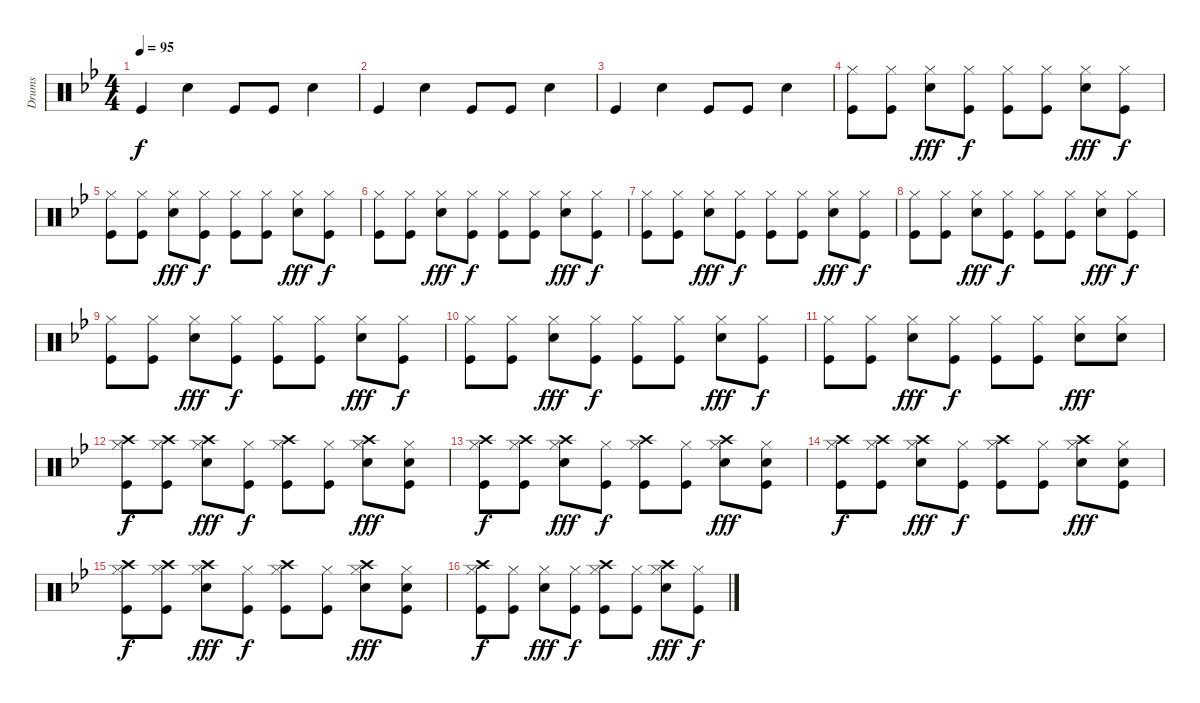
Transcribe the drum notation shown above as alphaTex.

\track ("Drums" "Drums") {instrument percussion}
\staff {score}
\articulation defaults
\ts (4 4)
\tempo 95
\clef neutral
\ks gminor "Kick (hit)".4{dy f} "Snare (hit) 2".4 "Kick (hit)".8 "Kick (hit)".8 "Snare (hit) 2".4
|
"Kick (hit)".4 "Snare (hit) 2".4 "Kick (hit)".8 "Kick (hit)".8 "Snare (hit) 2".4 |
"Kick (hit)".4 "Snare (hit) 2".4 "Kick (hit)".8 "Kick (hit)".8 "Snare (hit) 2".4 |
("Hi-Hat (closed)" "Kick (hit)").8{volume 13} ("Hi-Hat (closed)" "Kick (hit)").8 ("Hi-Hat (closed)" "Electric Snare (hit)").8{dy fff} ("Hi-Hat (closed)" "Kick (hit)").8{dy f} ("Hi-Hat (closed)" "Kick (hit)").8 ("Hi-Hat (closed)" "Kick (hit)").8 ("Hi-Hat (closed)" "Electric Snare (hit)").8{dy fff} ("Hi-Hat (closed)" "Kick (hit)").8{dy f} |
("Hi-Hat (closed)" "Kick (hit)").8 ("Hi-Hat (closed)" "Kick (hit)").8 ("Hi-Hat (closed)" "Electric Snare (hit)").8{dy fff} ("Hi-Hat (closed)" "Kick (hit)").8{dy f} ("Hi-Hat (closed)" "Kick (hit)").8 ("Hi-Hat (closed)" "Kick (hit)").8 ("Hi-Hat (closed)" "Electric Snare (hit)").8{dy fff} ("Hi-Hat (closed)" "Kick (hit)").8{dy f} |
("Hi-Hat (closed)" "Kick (hit)").8 ("Hi-Hat (closed)" "Kick (hit)").8 ("Hi-Hat (closed)" "Electric Snare (hit)").8{dy fff} ("Hi-Hat (closed)" "Kick (hit)").8{dy f} ("Hi-Hat (closed)" "Kick (hit)").8 ("Hi-Hat (closed)" "Kick (hit)").8 ("Hi-Hat (closed)" "Electric Snare (hit)").8{dy fff} ("Hi-Hat (closed)" "Kick (hit)").8{dy f} |
("Hi-Hat (closed)" "Kick (hit)").8 ("Hi-Hat (closed)" "Kick (hit)").8 ("Hi-Hat (closed)" "Electric Snare (hit)").8{dy fff} ("Hi-Hat (closed)" "Kick (hit)").8{dy f} ("Hi-Hat (closed)" "Kick (hit)").8 ("Hi-Hat (closed)" "Kick (hit)").8 ("Hi-Hat (closed)" "Electric Snare (hit)").8{dy fff} ("Hi-Hat (closed)" "Kick (hit)").8{dy f} |
("Hi-Hat (closed)" "Kick (hit)").8 ("Hi-Hat (closed)" "Kick (hit)").8 ("Hi-Hat (closed)" "Electric Snare (hit)").8{dy fff} ("Hi-Hat (closed)" "Kick (hit)").8{dy f} ("Hi-Hat (closed)" "Kick (hit)").8 ("Hi-Hat (closed)" "Kick (hit)").8 ("Hi-Hat (closed)" "Electric Snare (hit)").8{dy fff} ("Hi-Hat (closed)" "Kick (hit)").8{dy f} |
("Hi-Hat (closed)" "Kick (hit)").8 ("Hi-Hat (closed)" "Kick (hit)").8 ("Hi-Hat (closed)" "Electric Snare (hit)").8{dy fff} ("Hi-Hat (closed)" "Kick (hit)").8{dy f} ("Hi-Hat (closed)" "Kick (hit)").8 ("Hi-Hat (closed)" "Kick (hit)").8 ("Hi-Hat (closed)" "Electric Snare (hit)").8{dy fff} ("Hi-Hat (closed)" "Kick (hit)").8{dy f} |
("Hi-Hat (closed)" "Kick (hit)").8 ("Hi-Hat (closed)" "Kick (hit)").8 ("Hi-Hat (closed)" "Electric Snare (hit)").8{dy fff} ("Hi-Hat (closed)" "Kick (hit)").8{dy f} ("Hi-Hat (closed)" "Kick (hit)").8 ("Hi-Hat (closed)" "Kick (hit)").8 ("Hi-Hat (closed)" "Electric Snare (hit)").8{dy fff} ("Hi-Hat (closed)" "Kick (hit)").8{dy f} |
("Hi-Hat (closed)" "Kick (hit)").8 ("Hi-Hat (closed)" "Kick (hit)").8 ("Hi-Hat (closed)" "Electric Snare (hit)").8{dy fff} ("Hi-Hat (closed)" "Kick (hit)").8{dy f} ("Hi-Hat (closed)" "Kick (hit)").8 ("Hi-Hat (closed)" "Kick (hit)").8 ("Hi-Hat (closed)" "Electric Snare (hit)").8{dy fff} ("Hi-Hat (closed)" "Electric Snare (hit)").8 |
("Hi-Hat (closed)" "Kick (hit)" "Crash high (hit)").8{dy f} ("Hi-Hat (closed)" "Kick (hit)" "Crash high (hit)").8 ("Hi-Hat (closed)" "Electric Snare (hit)" "Crash high (hit)").8{dy fff} ("Hi-Hat (closed)" "Kick (hit)").8{dy f} ("Hi-Hat (closed)" "Kick (hit)" "Crash high (hit)").8 ("Hi-Hat (closed)" "Kick (hit)").8 ("Hi-Hat (closed)" "Electric Snare (hit)" "Crash high (hit)").8{dy fff} ("Hi-Hat (closed)" "Electric Snare (hit)" "Kick (hit)").8 |
("Hi-Hat (closed)" "Kick (hit)" "Crash high (hit)").8{dy f} ("Hi-Hat (closed)" "Kick (hit)" "Crash high (hit)").8 ("Hi-Hat (closed)" "Electric Snare (hit)" "Crash high (hit)").8{dy fff} ("Hi-Hat (closed)" "Kick (hit)").8{dy f} ("Hi-Hat (closed)" "Kick (hit)" "Crash high (hit)").8 ("Hi-Hat (closed)" "Kick (hit)").8 ("Hi-Hat (closed)" "Electric Snare (hit)" "Crash high (hit)").8{dy fff} ("Hi-Hat (closed)" "Electric Snare (hit)" "Kick (hit)").8 |
("Hi-Hat (closed)" "Kick (hit)" "Crash high (hit)").8{dy f} ("Hi-Hat (closed)" "Kick (hit)" "Crash high (hit)").8 ("Hi-Hat (closed)" "Electric Snare (hit)" "Crash high (hit)").8{dy fff} ("Hi-Hat (closed)" "Kick (hit)").8{dy f} ("Hi-Hat (closed)" "Kick (hit)" "Crash high (hit)").8 ("Hi-Hat (closed)" "Kick (hit)").8 ("Hi-Hat (closed)" "Electric Snare (hit)" "Crash high (hit)").8{dy fff} ("Hi-Hat (closed)" "Electric Snare (hit)" "Kick (hit)").8 |
("Hi-Hat (closed)" "Kick (hit)" "Crash high (hit)").8{dy f} ("Hi-Hat (closed)" "Kick (hit)" "Crash high (hit)").8 ("Hi-Hat (closed)" "Electric Snare (hit)" "Crash high (hit)").8{dy fff} ("Hi-Hat (closed)" "Kick (hit)").8{dy f} ("Hi-Hat (closed)" "Kick (hit)" "Crash high (hit)").8 ("Hi-Hat (closed)" "Kick (hit)").8 ("Hi-Hat (closed)" "Electric Snare (hit)" "Crash high (hit)").8{dy fff} ("Hi-Hat (closed)" "Electric Snare (hit)" "Kick (hit)").8 |
("Hi-Hat (closed)" "Kick (hit)" "Crash high (hit)").8{dy f} ("Hi-Hat (closed)" "Kick (hit)").8 ("Hi-Hat (closed)" "Electric Snare (hit)").8{dy fff} ("Hi-Hat (closed)" "Kick (hit)").8{dy f} ("Hi-Hat (closed)" "Kick (hit)" "Crash high (hit)").8 ("Hi-Hat (closed)" "Kick (hit)").8 ("Hi-Hat (closed)" "Electric Snare (hit)" "Crash high (hit)").8{dy fff} ("Hi-Hat (closed)" "Kick (hit)").8{dy f}
